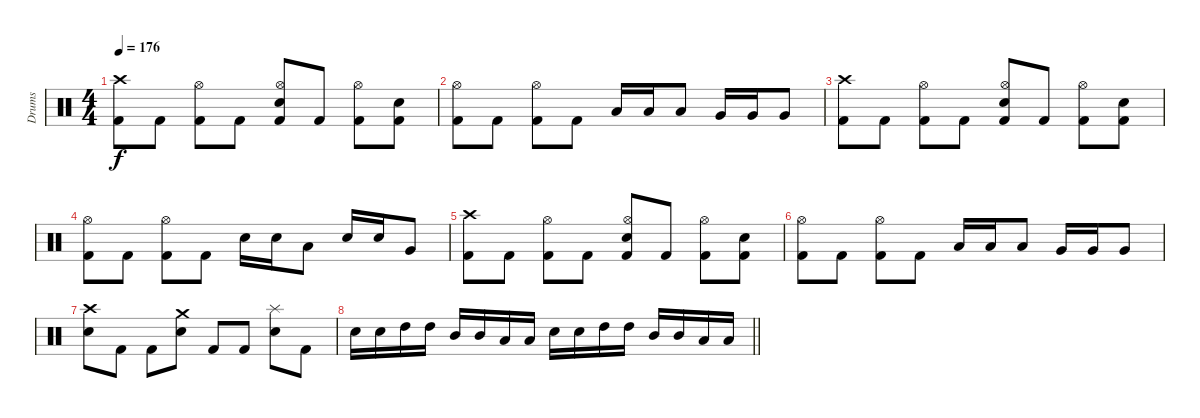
\track ("Drums" "Drums") {instrument percussion}
\staff {score}
\articulation defaults
\ts (4 4)
\tempo 176
\clef neutral
\ks c
("Crash high (hit)" "Kick (hit) 2").8{dy f} "Kick (hit) 2".8 ("Hi-Hat (open)" "Kick (hit) 2").8 "Kick (hit) 2".8 ("Hi-Hat (open)" "Snare (hit) 2" "Kick (hit) 2").8 "Kick (hit) 2".8 ("Hi-Hat (open)" "Kick (hit) 2").8 ("Snare (hit) 2" "Kick (hit) 2").8 |
("Hi-Hat (open)" "Kick (hit) 2").8 "Kick (hit) 2".8 ("Hi-Hat (open)" "Kick (hit) 2").8 "Kick (hit) 2".8 "Low Tom (hit)".16 "Low Tom (hit)".16 "Low Tom (hit)".8 "Very Low Tom (hit)".16 "Very Low Tom (hit)".16 "Very Low Tom (hit)".8 |
("Crash high (hit)" "Kick (hit) 2").8{volume 0} "Kick (hit) 2".8 ("Hi-Hat (open)" "Kick (hit) 2").8 "Kick (hit) 2".8 ("Hi-Hat (open)" "Snare (hit) 2" "Kick (hit) 2").8 "Kick (hit) 2".8 ("Hi-Hat (open)" "Kick (hit) 2").8 ("Snare (hit) 2" "Kick (hit) 2").8 |
("Hi-Hat (open)" "Kick (hit) 2").8 "Kick (hit) 2".8 ("Hi-Hat (open)" "Kick (hit) 2").8 "Kick (hit) 2".8 "Snare (hit) 2".16 "Snare (hit) 2".16 "Low Tom (hit)".8 "Snare (hit) 2".16 "Snare (hit) 2".16 "Very Low Tom (hit)".8 |
("Crash high (hit)" "Kick (hit) 2").8 "Kick (hit) 2".8 ("Hi-Hat (open)" "Kick (hit) 2").8 "Kick (hit) 2".8 ("Hi-Hat (open)" "Snare (hit) 2" "Kick (hit) 2").8 "Kick (hit) 2".8 ("Hi-Hat (open)" "Kick (hit) 2").8 ("Snare (hit) 2" "Kick (hit) 2").8 |
("Hi-Hat (open)" "Kick (hit) 2").8 "Kick (hit) 2".8 ("Hi-Hat (open)" "Kick (hit) 2").8 "Kick (hit) 2".8 "Low Tom (hit)".16 "Low Tom (hit)".16 "Low Tom (hit)".8 "Very Low Tom (hit)".16 "Very Low Tom (hit)".16 "Very Low Tom (hit)".8 |
("Crash high (hit)" "Snare (hit) 2").8 "Kick (hit) 2".8 "Kick (hit) 2".8 ("Crash medium (hit)" "Snare (hit) 2").8 "Kick (hit) 2".8 "Kick (hit) 2".8 ("Splash (hit)" "Snare (hit) 2").8 "Kick (hit) 2".8 |
\barLineRight lightlight "Snare (hit) 2".16 "Snare (hit) 2".16 "High Tom (hit)".16 "High Tom (hit)".16 "Mid Tom (hit)".16 "Mid Tom (hit)".16 "Low Tom (hit)".16 "Low Tom (hit)".16 "Snare (hit) 2".16 "Snare (hit) 2".16 "High Tom (hit)".16 "High Tom (hit)".16 "Mid Tom (hit)".16 "Mid Tom (hit)".16 "Low Tom (hit)".16 "Low Tom (hit)".16
